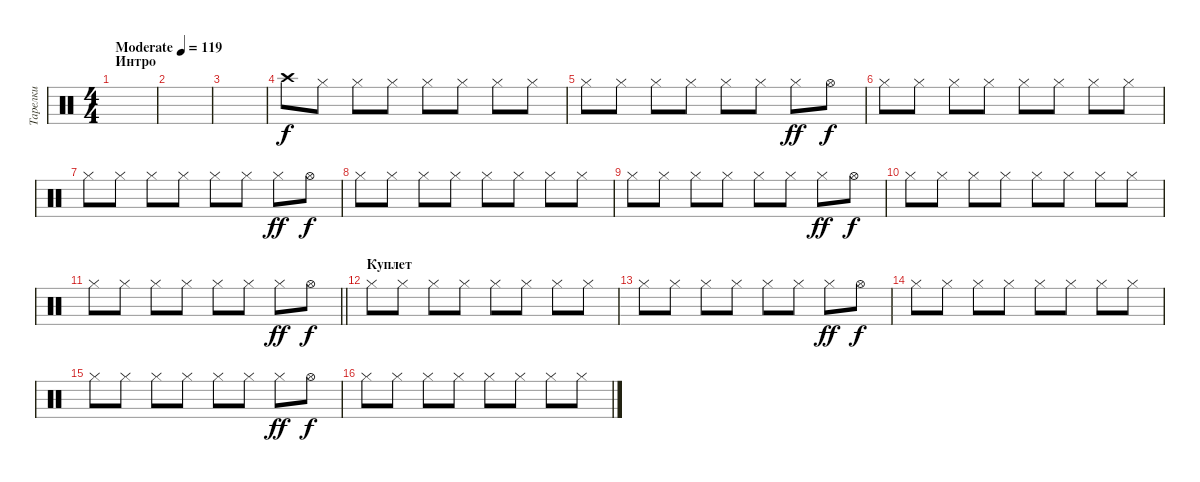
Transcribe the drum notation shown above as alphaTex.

\track ("Тарелки" "Тарелки") {instrument percussion}
\staff {score}
\articulation defaults
\ts (4 4)
\section ("" "Интро")
\tempo (119 "Moderate")
\clef neutral
\ks c
|
|
|
"Crash high (hit)".8 "Hi-Hat (closed)".8 "Hi-Hat (closed)".8 "Hi-Hat (closed)".8 "Hi-Hat (closed)".8 "Hi-Hat (closed)".8 "Hi-Hat (closed)".8 "Hi-Hat (closed)".8 |
"Hi-Hat (closed)".8 "Hi-Hat (closed)".8 "Hi-Hat (closed)".8 "Hi-Hat (closed)".8 "Hi-Hat (closed)".8 "Hi-Hat (closed)".8 "Hi-Hat (closed)".8{dy ff} "Hi-Hat (open)".8{dy f} |
"Hi-Hat (closed)".8 "Hi-Hat (closed)".8 "Hi-Hat (closed)".8 "Hi-Hat (closed)".8 "Hi-Hat (closed)".8 "Hi-Hat (closed)".8 "Hi-Hat (closed)".8 "Hi-Hat (closed)".8 |
"Hi-Hat (closed)".8 "Hi-Hat (closed)".8 "Hi-Hat (closed)".8 "Hi-Hat (closed)".8 "Hi-Hat (closed)".8 "Hi-Hat (closed)".8 "Hi-Hat (closed)".8{dy ff} "Hi-Hat (open)".8{dy f} |
"Hi-Hat (closed)".8 "Hi-Hat (closed)".8 "Hi-Hat (closed)".8 "Hi-Hat (closed)".8 "Hi-Hat (closed)".8 "Hi-Hat (closed)".8 "Hi-Hat (closed)".8 "Hi-Hat (closed)".8 |
"Hi-Hat (closed)".8 "Hi-Hat (closed)".8 "Hi-Hat (closed)".8 "Hi-Hat (closed)".8 "Hi-Hat (closed)".8 "Hi-Hat (closed)".8 "Hi-Hat (closed)".8{dy ff} "Hi-Hat (open)".8{dy f} |
"Hi-Hat (closed)".8 "Hi-Hat (closed)".8 "Hi-Hat (closed)".8 "Hi-Hat (closed)".8 "Hi-Hat (closed)".8 "Hi-Hat (closed)".8 "Hi-Hat (closed)".8 "Hi-Hat (closed)".8 |
\barLineRight lightlight "Hi-Hat (closed)".8 "Hi-Hat (closed)".8 "Hi-Hat (closed)".8 "Hi-Hat (closed)".8 "Hi-Hat (closed)".8 "Hi-Hat (closed)".8 "Hi-Hat (closed)".8{dy ff} "Hi-Hat (open)".8{dy f}
|
\section ("" "Куплет")
"Hi-Hat (closed)".8 "Hi-Hat (closed)".8 "Hi-Hat (closed)".8 "Hi-Hat (closed)".8 "Hi-Hat (closed)".8 "Hi-Hat (closed)".8 "Hi-Hat (closed)".8 "Hi-Hat (closed)".8 |
"Hi-Hat (closed)".8 "Hi-Hat (closed)".8 "Hi-Hat (closed)".8 "Hi-Hat (closed)".8 "Hi-Hat (closed)".8 "Hi-Hat (closed)".8 "Hi-Hat (closed)".8{dy ff} "Hi-Hat (open)".8{dy f} |
"Hi-Hat (closed)".8 "Hi-Hat (closed)".8 "Hi-Hat (closed)".8 "Hi-Hat (closed)".8 "Hi-Hat (closed)".8 "Hi-Hat (closed)".8 "Hi-Hat (closed)".8 "Hi-Hat (closed)".8 |
"Hi-Hat (closed)".8 "Hi-Hat (closed)".8 "Hi-Hat (closed)".8 "Hi-Hat (closed)".8 "Hi-Hat (closed)".8 "Hi-Hat (closed)".8 "Hi-Hat (closed)".8{dy ff} "Hi-Hat (open)".8{dy f} |
"Hi-Hat (closed)".8 "Hi-Hat (closed)".8 "Hi-Hat (closed)".8 "Hi-Hat (closed)".8 "Hi-Hat (closed)".8 "Hi-Hat (closed)".8 "Hi-Hat (closed)".8 "Hi-Hat (closed)".8
